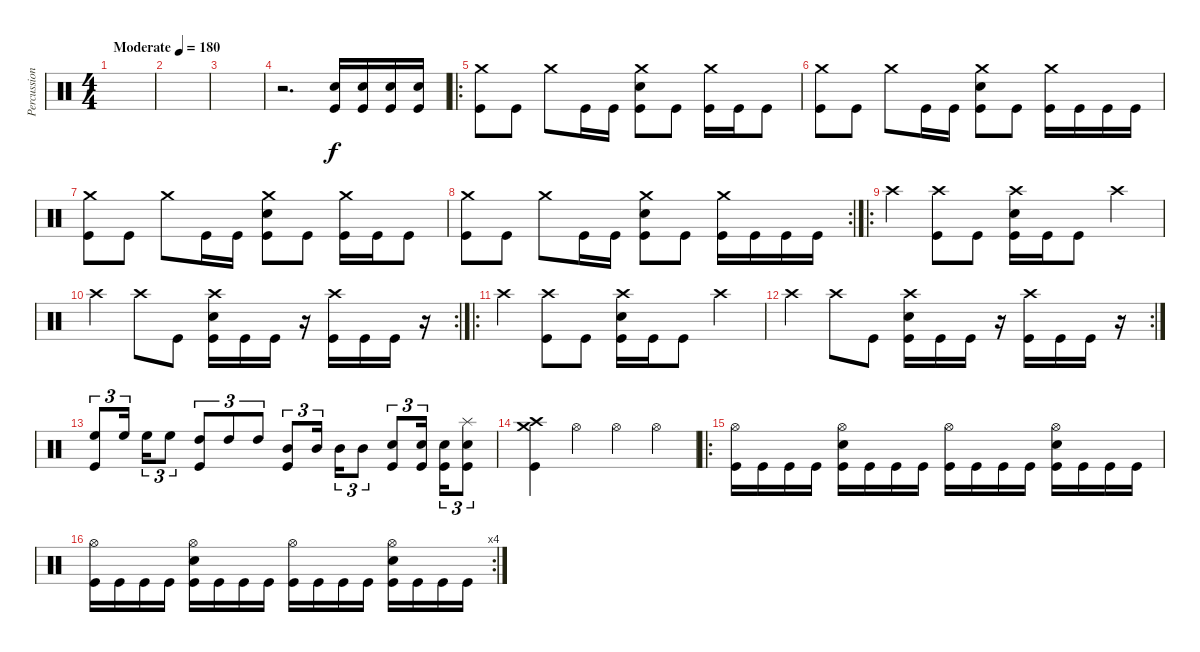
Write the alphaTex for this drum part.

\track ("Percussion" "Percussion") {instrument percussion}
\staff {score}
\articulation defaults
\ts (4 4)
\tempo (180 "Moderate")
\clef neutral
\ks c
|
|
|
r.2{d} ("Snare (hit) 2" "Kick (hit)").16 ("Snare (hit) 2" "Kick (hit)").16 ("Snare (hit) 2" "Kick (hit)").16 ("Snare (hit) 2" "Kick (hit)").16 |
\ro
("Crash medium (hit)" "Kick (hit)").8 "Kick (hit)".8 "Crash medium (hit)".8 "Kick (hit)".16 "Kick (hit)".16 ("Crash medium (hit)" "Snare (hit) 2" "Kick (hit)").8 "Kick (hit)".8 ("Crash medium (hit)" "Kick (hit)").16 "Kick (hit)".16 "Kick (hit)".8 |
("Crash medium (hit)" "Kick (hit)").8 "Kick (hit)".8 "Crash medium (hit)".8 "Kick (hit)".16 "Kick (hit)".16 ("Crash medium (hit)" "Snare (hit) 2" "Kick (hit)").8 "Kick (hit)".8 ("Crash medium (hit)" "Kick (hit)").16 "Kick (hit)".16 "Kick (hit)".16 "Kick (hit)".16 |
("Crash medium (hit)" "Kick (hit)").8 "Kick (hit)".8 "Crash medium (hit)".8 "Kick (hit)".16 "Kick (hit)".16 ("Crash medium (hit)" "Snare (hit) 2" "Kick (hit)").8 "Kick (hit)".8 ("Crash medium (hit)" "Kick (hit)").16 "Kick (hit)".16 "Kick (hit)".8 |
\rc 2
("Crash medium (hit)" "Kick (hit)").8 "Kick (hit)".8 "Crash medium (hit)".8 "Kick (hit)".16 "Kick (hit)".16 ("Crash medium (hit)" "Snare (hit) 2" "Kick (hit)").8 "Kick (hit)".8 ("Crash medium (hit)" "Kick (hit)").16 "Kick (hit)".16 "Kick (hit)".16 "Kick (hit)".16 |
\ro "Crash high (hit)".4
("Crash high (hit)" "Kick (hit)").8 "Kick (hit)".8 ("Crash high (hit)" "Snare (hit) 2" "Kick (hit)").16 "Kick (hit)".16 "Kick (hit)".8 "Crash high (hit)".4 |
\rc 2 "Crash high (hit)".4 "Crash high (hit)".8 "Kick (hit)".8
("Crash high (hit)" "Snare (hit) 2" "Kick (hit)").16 "Kick (hit)".16 "Kick (hit)".16 r.16 ("Crash high (hit)" "Kick (hit)").16 "Kick (hit)".16 "Kick (hit)".16 r.16 |
\ro "Crash high (hit)".4
("Crash high (hit)" "Kick (hit)").8 "Kick (hit)".8 ("Crash high (hit)" "Snare (hit) 2" "Kick (hit)").16 "Kick (hit)".16 "Kick (hit)".8 "Crash high (hit)".4 |
\rc 2 "Crash high (hit)".4 "Crash high (hit)".8 "Kick (hit)".8
("Crash high (hit)" "Snare (hit) 2" "Kick (hit)").16 "Kick (hit)".16 "Kick (hit)".16 r.16 ("Crash high (hit)" "Kick (hit)").16 "Kick (hit)".16 "Kick (hit)".16 r.16 |
("High Floor Tom (hit)" "Kick (hit)").8{tu (3 2)} "High Floor Tom (hit)".16{tu (3 2) beam splitsecondary} "High Floor Tom (hit)".16{tu (3 2)} "High Floor Tom (hit)".8{tu (3 2)} ("High Tom (hit)" "Kick (hit)").8{tu (3 2)} "High Tom (hit)".8{tu (3 2)} "High Tom (hit)".8{tu (3 2)} ("Mid Tom (hit)" "Kick (hit)").8{tu (3 2)} "Mid Tom (hit)".16{tu (3 2) beam splitsecondary} "Mid Tom (hit)".16{tu (3 2)} "Mid Tom (hit)".8{tu (3 2)} ("Snare (hit) 2" "Kick (hit)").8{tu (3 2)} ("Snare (hit) 2" "Kick (hit)").16{tu (3 2) beam splitsecondary} ("Snare (hit) 2" "Kick (hit)").16{tu (3 2)} ("Splash (hit)" "Snare (hit) 2" "Kick (hit)").8{tu (3 2)} |
("Crash medium (hit)" "Crash high (hit)" "Kick (hit)").4 "Hi-Hat (open)".4 "Hi-Hat (open)".4 "Hi-Hat (open)".4 |
\ro
("Hi-Hat (open)" "Kick (hit)").16 "Kick (hit)".16 "Kick (hit)".16 "Kick (hit)".16 ("Hi-Hat (open)" "Snare (hit) 2" "Kick (hit)").16 "Kick (hit)".16 "Kick (hit)".16 "Kick (hit)".16 ("Hi-Hat (open)" "Kick (hit)").16 "Kick (hit)".16 "Kick (hit)".16 "Kick (hit)".16 ("Hi-Hat (open)" "Snare (hit) 2" "Kick (hit)").16 "Kick (hit)".16 "Kick (hit)".16 "Kick (hit)".16 |
\rc 4
("Hi-Hat (open)" "Kick (hit)").16 "Kick (hit)".16 "Kick (hit)".16 "Kick (hit)".16 ("Hi-Hat (open)" "Snare (hit) 2" "Kick (hit)").16 "Kick (hit)".16 "Kick (hit)".16 "Kick (hit)".16 ("Hi-Hat (open)" "Kick (hit)").16 "Kick (hit)".16 "Kick (hit)".16 "Kick (hit)".16 ("Hi-Hat (open)" "Snare (hit) 2" "Kick (hit)").16 "Kick (hit)".16 "Kick (hit)".16 "Kick (hit)".16
